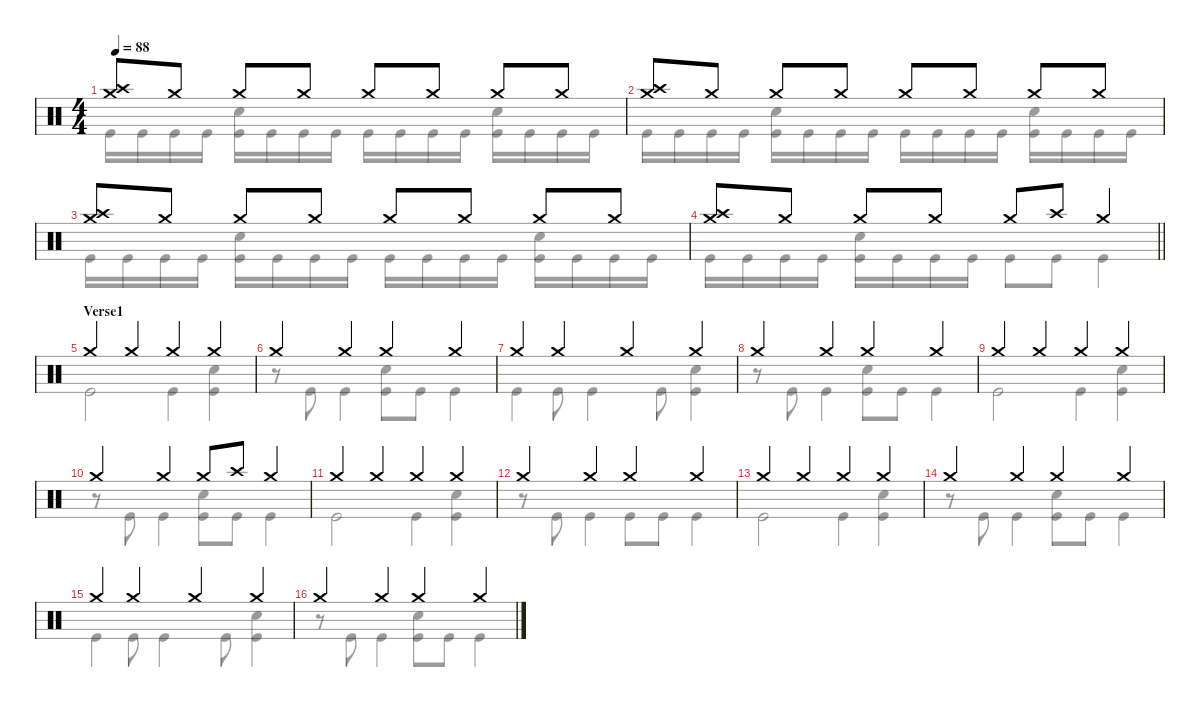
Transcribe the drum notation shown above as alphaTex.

\defaultSystemsLayout 4
\hideDynamics
\bracketExtendMode nobrackets
\singleTrackTrackNamePolicy hidden
\multiTrackTrackNamePolicy hidden
\firstSystemTrackNameMode fullname
\otherSystemsTrackNameOrientation horizontal
\track ("Drums" "drm.") {instrument percussion}
\staff {score}
\articulation defaults
\voice
\ts (4 4)
\tempo 88
\clef neutral
\ks c
("Crash medium (hit)" "Crash high (hit)").8{dy f beam Up} "Crash medium (hit)".8{beam Up} "Crash medium (hit)".8{dy mp beam Up} "Crash medium (hit)".8{dy f beam Up} "Crash medium (hit)".8{dy mp beam Up} "Crash medium (hit)".8{dy f beam Up} "Crash medium (hit)".8{dy mp beam Up} "Crash medium (hit)".8{dy f beam Up} |
("Crash medium (hit)" "Crash high (hit)").8{beam Up} "Crash medium (hit)".8{beam Up} "Crash medium (hit)".8{dy mp beam Up} "Crash medium (hit)".8{dy f beam Up} "Crash medium (hit)".8{dy mp beam Up} "Crash medium (hit)".8{dy f beam Up} "Crash medium (hit)".8{dy mp beam Up} "Crash medium (hit)".8{dy f beam Up} |
("Crash medium (hit)" "Crash high (hit)").8{beam Up} "Crash medium (hit)".8{beam Up} "Crash medium (hit)".8{dy mp beam Up} "Crash medium (hit)".8{dy f beam Up} "Crash medium (hit)".8{dy mp beam Up} "Crash medium (hit)".8{dy f beam Up} "Crash medium (hit)".8{dy mp beam Up} "Crash medium (hit)".8{dy f beam Up} |
\barLineRight lightlight
("Crash medium (hit)" "Crash high (hit)").8{beam Up} "Crash medium (hit)".8{beam Up} "Crash medium (hit)".8{dy mp beam Up} "Crash medium (hit)".8{dy f beam Up} "Crash medium (hit)".8{dy mp beam Up} "Crash high (hit)".8{dy f beam Up} "Crash medium (hit)".4{dy mp beam Up} |
\section ("" "Verse1")
"Crash medium (hit)".4{dy f beam Up} "Crash medium (hit)".4{beam Up} "Crash medium (hit)".4{beam Up} "Crash medium (hit)".4{beam Up} |
"Crash medium (hit)".4{beam Up} "Crash medium (hit)".4{beam Up} "Crash medium (hit)".4{beam Up} "Crash medium (hit)".4{beam Up} |
"Crash medium (hit)".4{beam Up} "Crash medium (hit)".4{beam Up} "Crash medium (hit)".4{beam Up} "Crash medium (hit)".4{beam Up} |
"Crash medium (hit)".4{beam Up} "Crash medium (hit)".4{beam Up} "Crash medium (hit)".4{beam Up} "Crash medium (hit)".4{beam Up} |
"Crash medium (hit)".4{beam Up} "Crash medium (hit)".4{beam Up} "Crash medium (hit)".4{beam Up} "Crash medium (hit)".4{beam Up} |
"Crash medium (hit)".4{beam Up} "Crash medium (hit)".4{beam Up} "Crash medium (hit)".8{beam Up} "Crash high (hit)".8{beam Up} "Crash medium (hit)".4{beam Up} |
"Crash medium (hit)".4{beam Up} "Crash medium (hit)".4{beam Up} "Crash medium (hit)".4{beam Up} "Crash medium (hit)".4{beam Up} |
"Crash medium (hit)".4{beam Up} "Crash medium (hit)".4{beam Up} "Crash medium (hit)".4{beam Up} "Crash medium (hit)".4{beam Up} |
"Crash medium (hit)".4{beam Up} "Crash medium (hit)".4{beam Up} "Crash medium (hit)".4{beam Up} "Crash medium (hit)".4{beam Up} |
"Crash medium (hit)".4{beam Up} "Crash medium (hit)".4{beam Up} "Crash medium (hit)".4{beam Up} "Crash medium (hit)".4{beam Up} |
"Crash medium (hit)".4{beam Up} "Crash medium (hit)".4{beam Up} "Crash medium (hit)".4{beam Up} "Crash medium (hit)".4{beam Up} |
"Crash medium (hit)".4{beam Up} "Crash medium (hit)".4{beam Up} "Crash medium (hit)".4{beam Up} "Crash medium (hit)".4{beam Up}
\voice
\clef neutral
\ottava regular
\simile none
\ks c "Kick (hit)".16{dy f beam Down} "Kick (hit)".16{beam Down} "Kick (hit)".16{beam Down} "Kick (hit)".16{beam Down}
("Snare (hit) 2" "Kick (hit)").16{beam Down} "Kick (hit)".16{beam Down} "Kick (hit)".16{beam Down} "Kick (hit)".16{beam Down} "Kick (hit)".16{beam Down} "Kick (hit)".16{beam Down} "Kick (hit)".16{beam Down} "Kick (hit)".16{beam Down} ("Snare (hit) 2" "Kick (hit)").16{beam Down} "Kick (hit)".16{beam Down} "Kick (hit)".16{beam Down} "Kick (hit)".16{beam Down} |
"Kick (hit)".16{beam Down} "Kick (hit)".16{beam Down} "Kick (hit)".16{beam Down} "Kick (hit)".16{beam Down} ("Snare (hit) 2" "Kick (hit)").16{beam Down} "Kick (hit)".16{beam Down} "Kick (hit)".16{beam Down} "Kick (hit)".16{beam Down} "Kick (hit)".16{beam Down} "Kick (hit)".16{beam Down} "Kick (hit)".16{beam Down} "Kick (hit)".16{beam Down} ("Snare (hit) 2" "Kick (hit)").16{beam Down} "Kick (hit)".16{beam Down} "Kick (hit)".16{beam Down} "Kick (hit)".16{beam Down} |
"Kick (hit)".16{beam Down} "Kick (hit)".16{beam Down} "Kick (hit)".16{beam Down} "Kick (hit)".16{beam Down} ("Snare (hit) 2" "Kick (hit)").16{beam Down} "Kick (hit)".16{beam Down} "Kick (hit)".16{beam Down} "Kick (hit)".16{beam Down} "Kick (hit)".16{beam Down} "Kick (hit)".16{beam Down} "Kick (hit)".16{beam Down} "Kick (hit)".16{beam Down} ("Snare (hit) 2" "Kick (hit)").16{beam Down} "Kick (hit)".16{beam Down} "Kick (hit)".16{beam Down} "Kick (hit)".16{beam Down} |
\barLineRight lightlight "Kick (hit)".16{beam Down} "Kick (hit)".16{beam Down} "Kick (hit)".16{beam Down} "Kick (hit)".16{beam Down}
("Snare (hit) 2" "Kick (hit)").16{beam Down} "Kick (hit)".16{beam Down} "Kick (hit)".16{beam Down} "Kick (hit)".16{beam Down} "Kick (hit)".8{beam Down} "Kick (hit)".8{beam Down} "Kick (hit)".4{beam Down} |
"Kick (hit)".2{beam Down} "Kick (hit)".4{beam Down} ("Snare (hit) 2" "Kick (hit)").4{beam Down} |
r.8{beam Down} "Kick (hit)".8{beam Down} "Kick (hit)".4{beam Down} ("Snare (hit) 2" "Kick (hit)").8{beam Down} "Kick (hit)".8{beam Down} "Kick (hit)".4{beam Down} |
"Kick (hit)".4{beam Down} "Kick (hit)".8{beam Down} "Kick (hit)".4{beam Down} "Kick (hit)".8{beam Down} ("Snare (hit) 2" "Kick (hit)").4{beam Down} |
r.8{beam Down} "Kick (hit)".8{beam Down} "Kick (hit)".4{beam Down} ("Snare (hit) 2" "Kick (hit)").8{beam Down} "Kick (hit)".8{beam Down} "Kick (hit)".4{beam Down} |
"Kick (hit)".2{beam Down} "Kick (hit)".4{beam Down} ("Snare (hit) 2" "Kick (hit)").4{beam Down} |
r.8{beam Down} "Kick (hit)".8{beam Down} "Kick (hit)".4{beam Down} ("Snare (hit) 2" "Kick (hit)").8{beam Down} "Kick (hit)".8{beam Down} "Kick (hit)".4{beam Down} |
"Kick (hit)".2{beam Down} "Kick (hit)".4{beam Down} ("Snare (hit) 2" "Kick (hit)").4{beam Down} |
r.8{beam Down} "Kick (hit)".8{beam Down} "Kick (hit)".4{beam Down} "Kick (hit)".8{beam Down} "Kick (hit)".8{beam Down} "Kick (hit)".4{beam Down} |
"Kick (hit)".2{beam Down} "Kick (hit)".4{beam Down} ("Snare (hit) 2" "Kick (hit)").4{beam Down} |
r.8{beam Down} "Kick (hit)".8{beam Down} "Kick (hit)".4{beam Down} ("Snare (hit) 2" "Kick (hit)").8{beam Down} "Kick (hit)".8{beam Down} "Kick (hit)".4{beam Down} |
"Kick (hit)".4{beam Down} "Kick (hit)".8{beam Down} "Kick (hit)".4{beam Down} "Kick (hit)".8{beam Down} ("Snare (hit) 2" "Kick (hit)").4{beam Down} |
r.8{beam Down} "Kick (hit)".8{beam Down} "Kick (hit)".4{beam Down} ("Snare (hit) 2" "Kick (hit)").8{beam Down} "Kick (hit)".8{beam Down} "Kick (hit)".4{beam Down}
